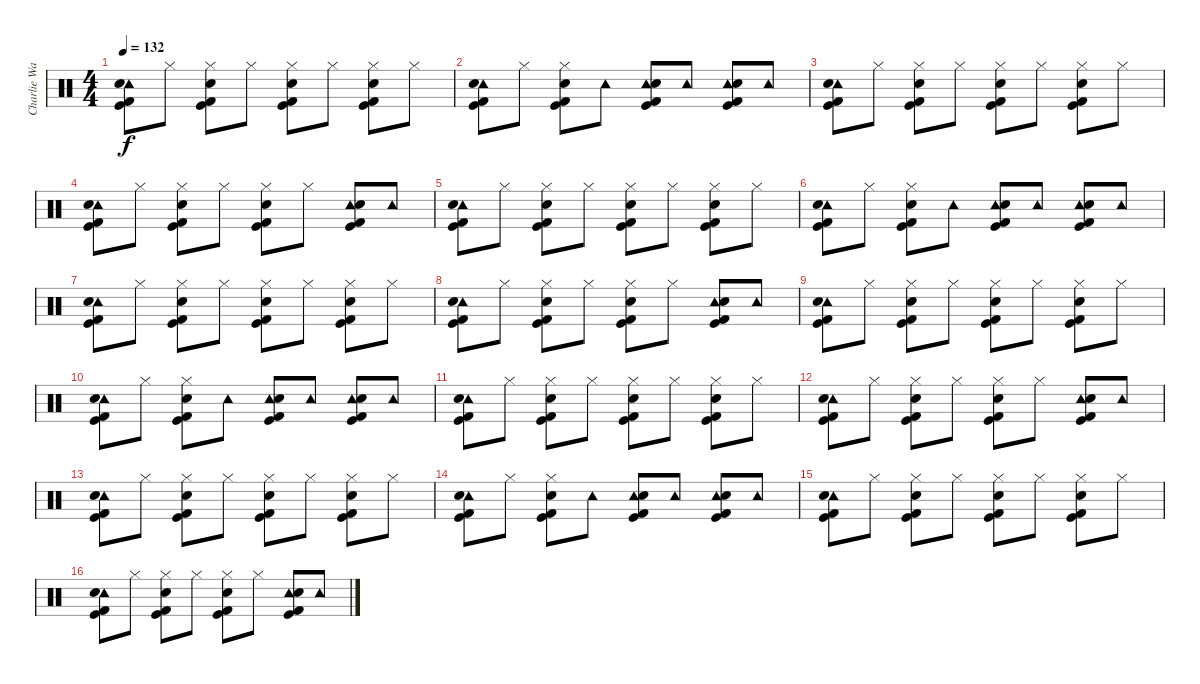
\track ("Charlie Watts" "Charlie Wa") {instrument percussion}
\staff {score}
\articulation defaults
\ts (4 4)
\tempo 132
\clef neutral
\ks c
("Tambourine (hit)" "Electric Snare (hit)" "Kick (hit) 2" "Kick (hit)").8{dy f} "Hi-Hat (closed)".8 ("Hi-Hat (closed)" "Electric Snare (hit)" "Kick (hit) 2" "Kick (hit)").8 "Hi-Hat (closed)".8 ("Hi-Hat (closed)" "Electric Snare (hit)" "Kick (hit) 2" "Kick (hit)").8 "Hi-Hat (closed)".8 ("Hi-Hat (closed)" "Electric Snare (hit)" "Kick (hit) 2" "Kick (hit)").8 "Hi-Hat (closed)".8 |
("Tambourine (hit)" "Electric Snare (hit)" "Kick (hit) 2" "Kick (hit)").8 "Hi-Hat (closed)".8 ("Hi-Hat (closed)" "Electric Snare (hit)" "Kick (hit) 2" "Kick (hit)").8 "Tambourine (hit)".8 ("Tambourine (hit)" "Electric Snare (hit)" "Kick (hit) 2" "Kick (hit)").8 "Tambourine (hit)".8 ("Tambourine (hit)" "Electric Snare (hit)" "Kick (hit) 2" "Kick (hit)").8 "Tambourine (hit)".8 |
("Tambourine (hit)" "Electric Snare (hit)" "Kick (hit) 2" "Kick (hit)").8 "Hi-Hat (closed)".8 ("Hi-Hat (closed)" "Electric Snare (hit)" "Kick (hit) 2" "Kick (hit)").8 "Hi-Hat (closed)".8 ("Hi-Hat (closed)" "Electric Snare (hit)" "Kick (hit) 2" "Kick (hit)").8 "Hi-Hat (closed)".8 ("Hi-Hat (closed)" "Electric Snare (hit)" "Kick (hit) 2" "Kick (hit)").8 "Hi-Hat (closed)".8 |
("Tambourine (hit)" "Electric Snare (hit)" "Kick (hit) 2" "Kick (hit)").8 "Hi-Hat (closed)".8 ("Hi-Hat (closed)" "Electric Snare (hit)" "Kick (hit) 2" "Kick (hit)").8 "Hi-Hat (closed)".8 ("Hi-Hat (closed)" "Electric Snare (hit)" "Kick (hit) 2" "Kick (hit)").8 "Hi-Hat (closed)".8 ("Tambourine (hit)" "Electric Snare (hit)" "Kick (hit) 2" "Kick (hit)").8 "Tambourine (hit)".8 |
("Tambourine (hit)" "Electric Snare (hit)" "Kick (hit) 2" "Kick (hit)").8 "Hi-Hat (closed)".8 ("Hi-Hat (closed)" "Electric Snare (hit)" "Kick (hit) 2" "Kick (hit)").8 "Hi-Hat (closed)".8 ("Hi-Hat (closed)" "Electric Snare (hit)" "Kick (hit) 2" "Kick (hit)").8 "Hi-Hat (closed)".8 ("Hi-Hat (closed)" "Electric Snare (hit)" "Kick (hit) 2" "Kick (hit)").8 "Hi-Hat (closed)".8 |
("Tambourine (hit)" "Electric Snare (hit)" "Kick (hit) 2" "Kick (hit)").8 "Hi-Hat (closed)".8 ("Hi-Hat (closed)" "Electric Snare (hit)" "Kick (hit) 2" "Kick (hit)").8 "Tambourine (hit)".8 ("Tambourine (hit)" "Electric Snare (hit)" "Kick (hit) 2" "Kick (hit)").8 "Tambourine (hit)".8 ("Tambourine (hit)" "Electric Snare (hit)" "Kick (hit) 2" "Kick (hit)").8 "Tambourine (hit)".8 |
("Tambourine (hit)" "Electric Snare (hit)" "Kick (hit) 2" "Kick (hit)").8 "Hi-Hat (closed)".8 ("Hi-Hat (closed)" "Electric Snare (hit)" "Kick (hit) 2" "Kick (hit)").8 "Hi-Hat (closed)".8 ("Hi-Hat (closed)" "Electric Snare (hit)" "Kick (hit) 2" "Kick (hit)").8 "Hi-Hat (closed)".8 ("Hi-Hat (closed)" "Electric Snare (hit)" "Kick (hit) 2" "Kick (hit)").8 "Hi-Hat (closed)".8 |
("Tambourine (hit)" "Electric Snare (hit)" "Kick (hit) 2" "Kick (hit)").8 "Hi-Hat (closed)".8 ("Hi-Hat (closed)" "Electric Snare (hit)" "Kick (hit) 2" "Kick (hit)").8 "Hi-Hat (closed)".8 ("Hi-Hat (closed)" "Electric Snare (hit)" "Kick (hit) 2" "Kick (hit)").8 "Hi-Hat (closed)".8 ("Tambourine (hit)" "Electric Snare (hit)" "Kick (hit) 2" "Kick (hit)").8 "Tambourine (hit)".8 |
("Tambourine (hit)" "Electric Snare (hit)" "Kick (hit) 2" "Kick (hit)").8 "Hi-Hat (closed)".8 ("Hi-Hat (closed)" "Electric Snare (hit)" "Kick (hit) 2" "Kick (hit)").8 "Hi-Hat (closed)".8 ("Hi-Hat (closed)" "Electric Snare (hit)" "Kick (hit) 2" "Kick (hit)").8 "Hi-Hat (closed)".8 ("Hi-Hat (closed)" "Electric Snare (hit)" "Kick (hit) 2" "Kick (hit)").8 "Hi-Hat (closed)".8 |
("Tambourine (hit)" "Electric Snare (hit)" "Kick (hit) 2" "Kick (hit)").8 "Hi-Hat (closed)".8 ("Hi-Hat (closed)" "Electric Snare (hit)" "Kick (hit) 2" "Kick (hit)").8 "Tambourine (hit)".8 ("Tambourine (hit)" "Electric Snare (hit)" "Kick (hit) 2" "Kick (hit)").8 "Tambourine (hit)".8 ("Tambourine (hit)" "Electric Snare (hit)" "Kick (hit) 2" "Kick (hit)").8 "Tambourine (hit)".8 |
("Tambourine (hit)" "Electric Snare (hit)" "Kick (hit) 2" "Kick (hit)").8 "Hi-Hat (closed)".8 ("Hi-Hat (closed)" "Electric Snare (hit)" "Kick (hit) 2" "Kick (hit)").8 "Hi-Hat (closed)".8 ("Hi-Hat (closed)" "Electric Snare (hit)" "Kick (hit) 2" "Kick (hit)").8 "Hi-Hat (closed)".8 ("Hi-Hat (closed)" "Electric Snare (hit)" "Kick (hit) 2" "Kick (hit)").8 "Hi-Hat (closed)".8 |
("Tambourine (hit)" "Electric Snare (hit)" "Kick (hit) 2" "Kick (hit)").8 "Hi-Hat (closed)".8 ("Hi-Hat (closed)" "Electric Snare (hit)" "Kick (hit) 2" "Kick (hit)").8 "Hi-Hat (closed)".8 ("Hi-Hat (closed)" "Electric Snare (hit)" "Kick (hit) 2" "Kick (hit)").8 "Hi-Hat (closed)".8 ("Tambourine (hit)" "Electric Snare (hit)" "Kick (hit) 2" "Kick (hit)").8 "Tambourine (hit)".8 |
("Tambourine (hit)" "Electric Snare (hit)" "Kick (hit) 2" "Kick (hit)").8 "Hi-Hat (closed)".8 ("Hi-Hat (closed)" "Electric Snare (hit)" "Kick (hit) 2" "Kick (hit)").8 "Hi-Hat (closed)".8 ("Hi-Hat (closed)" "Electric Snare (hit)" "Kick (hit) 2" "Kick (hit)").8 "Hi-Hat (closed)".8 ("Hi-Hat (closed)" "Electric Snare (hit)" "Kick (hit) 2" "Kick (hit)").8 "Hi-Hat (closed)".8 |
("Tambourine (hit)" "Electric Snare (hit)" "Kick (hit) 2" "Kick (hit)").8 "Hi-Hat (closed)".8 ("Hi-Hat (closed)" "Electric Snare (hit)" "Kick (hit) 2" "Kick (hit)").8 "Tambourine (hit)".8 ("Tambourine (hit)" "Electric Snare (hit)" "Kick (hit) 2" "Kick (hit)").8 "Tambourine (hit)".8 ("Tambourine (hit)" "Electric Snare (hit)" "Kick (hit) 2" "Kick (hit)").8 "Tambourine (hit)".8 |
("Tambourine (hit)" "Electric Snare (hit)" "Kick (hit) 2" "Kick (hit)").8 "Hi-Hat (closed)".8 ("Hi-Hat (closed)" "Electric Snare (hit)" "Kick (hit) 2" "Kick (hit)").8 "Hi-Hat (closed)".8 ("Hi-Hat (closed)" "Electric Snare (hit)" "Kick (hit) 2" "Kick (hit)").8 "Hi-Hat (closed)".8 ("Hi-Hat (closed)" "Electric Snare (hit)" "Kick (hit) 2" "Kick (hit)").8 "Hi-Hat (closed)".8 |
("Tambourine (hit)" "Electric Snare (hit)" "Kick (hit) 2" "Kick (hit)").8 "Hi-Hat (closed)".8 ("Hi-Hat (closed)" "Electric Snare (hit)" "Kick (hit) 2" "Kick (hit)").8 "Hi-Hat (closed)".8 ("Hi-Hat (closed)" "Electric Snare (hit)" "Kick (hit) 2" "Kick (hit)").8 "Hi-Hat (closed)".8 ("Tambourine (hit)" "Electric Snare (hit)" "Kick (hit) 2" "Kick (hit)").8 "Tambourine (hit)".8
